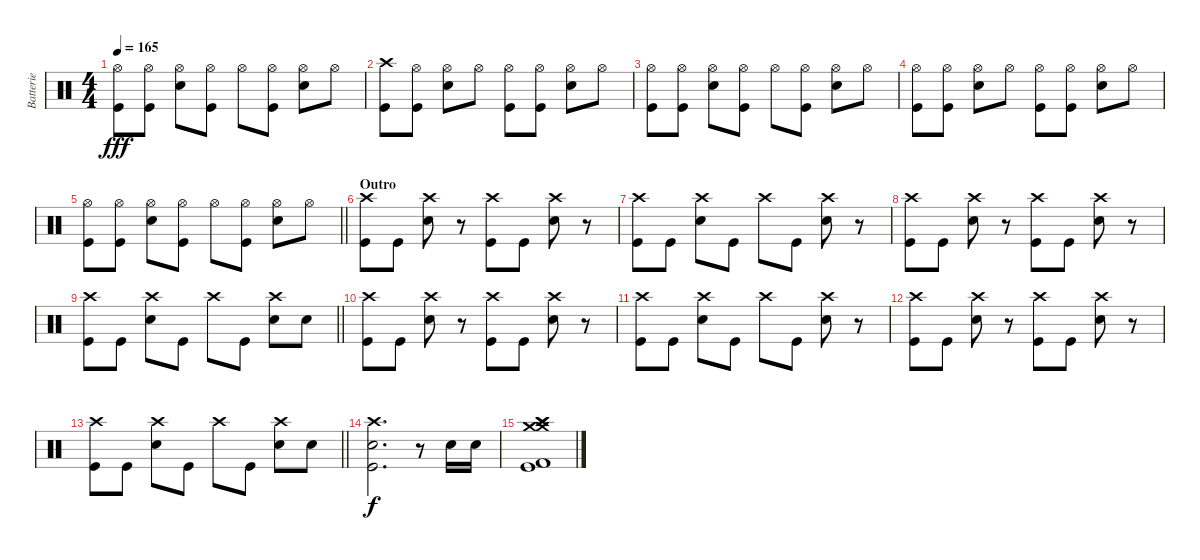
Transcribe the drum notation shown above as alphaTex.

\track ("Batterie" "Batterie") {instrument percussion}
\staff {score}
\articulation defaults
\ts (4 4)
\tempo 165
\clef neutral
\ks c
("Hi-Hat (open)" "Kick (hit)").8{dy fff} ("Hi-Hat (open)" "Kick (hit)").8 ("Hi-Hat (open)" "Electric Snare (hit)").8 ("Hi-Hat (open)" "Kick (hit)").8 "Hi-Hat (open)".8 ("Hi-Hat (open)" "Kick (hit)").8 ("Hi-Hat (open)" "Electric Snare (hit)").8 "Hi-Hat (open)".8 |
("Crash high (hit)" "Kick (hit)").8 ("Hi-Hat (open)" "Kick (hit)").8 ("Hi-Hat (open)" "Electric Snare (hit)").8 "Hi-Hat (open)".8 ("Hi-Hat (open)" "Kick (hit)").8 ("Hi-Hat (open)" "Kick (hit)").8 ("Hi-Hat (open)" "Electric Snare (hit)").8 "Hi-Hat (open)".8 |
("Hi-Hat (open)" "Kick (hit)").8 ("Hi-Hat (open)" "Kick (hit)").8 ("Hi-Hat (open)" "Electric Snare (hit)").8 ("Hi-Hat (open)" "Kick (hit)").8 "Hi-Hat (open)".8 ("Hi-Hat (open)" "Kick (hit)").8 ("Hi-Hat (open)" "Electric Snare (hit)").8 "Hi-Hat (open)".8 |
("Hi-Hat (open)" "Kick (hit)").8 ("Hi-Hat (open)" "Kick (hit)").8 ("Hi-Hat (open)" "Electric Snare (hit)").8 "Hi-Hat (open)".8 ("Hi-Hat (open)" "Kick (hit)").8 ("Hi-Hat (open)" "Kick (hit)").8 ("Hi-Hat (open)" "Electric Snare (hit)").8 "Hi-Hat (open)".8 |
\barLineRight lightlight
("Hi-Hat (open)" "Kick (hit)").8 ("Hi-Hat (open)" "Kick (hit)").8 ("Hi-Hat (open)" "Electric Snare (hit)").8 ("Hi-Hat (open)" "Kick (hit)").8 "Hi-Hat (open)".8 ("Hi-Hat (open)" "Kick (hit)").8 ("Hi-Hat (open)" "Electric Snare (hit)").8 "Hi-Hat (open)".8 |
\section ("" "Outro")
("Crash high (hit)" "Kick (hit)").8 "Kick (hit)".8 ("Crash high (hit)" "Electric Snare (hit)").8 r.8 ("Crash high (hit)" "Kick (hit)").8 "Kick (hit)".8 ("Crash high (hit)" "Electric Snare (hit)").8 r.8 |
("Crash high (hit)" "Kick (hit)").8 "Kick (hit)".8 ("Crash high (hit)" "Electric Snare (hit)").8 "Kick (hit)".8 "Crash high (hit)".8 "Kick (hit)".8 ("Crash high (hit)" "Electric Snare (hit)").8 r.8 |
("Crash high (hit)" "Kick (hit)").8 "Kick (hit)".8 ("Crash high (hit)" "Electric Snare (hit)").8 r.8 ("Crash high (hit)" "Kick (hit)").8 "Kick (hit)".8 ("Crash high (hit)" "Electric Snare (hit)").8 r.8 |
\barLineRight lightlight
("Crash high (hit)" "Kick (hit)").8 "Kick (hit)".8 ("Crash high (hit)" "Electric Snare (hit)").8 "Kick (hit)".8 "Crash high (hit)".8 "Kick (hit)".8 ("Crash high (hit)" "Electric Snare (hit)").8 "Electric Snare (hit)".8 |
("Crash high (hit)" "Kick (hit)").8 "Kick (hit)".8 ("Crash high (hit)" "Electric Snare (hit)").8 r.8 ("Crash high (hit)" "Kick (hit)").8 "Kick (hit)".8 ("Crash high (hit)" "Electric Snare (hit)").8 r.8 |
("Crash high (hit)" "Kick (hit)").8 "Kick (hit)".8 ("Crash high (hit)" "Electric Snare (hit)").8 "Kick (hit)".8 "Crash high (hit)".8 "Kick (hit)".8 ("Crash high (hit)" "Electric Snare (hit)").8 r.8 |
("Crash high (hit)" "Kick (hit)").8 "Kick (hit)".8 ("Crash high (hit)" "Electric Snare (hit)").8 r.8 ("Crash high (hit)" "Kick (hit)").8 "Kick (hit)".8 ("Crash high (hit)" "Electric Snare (hit)").8 r.8 |
\barLineRight lightlight
("Crash high (hit)" "Kick (hit)").8 "Kick (hit)".8 ("Crash high (hit)" "Electric Snare (hit)").8 "Kick (hit)".8 "Crash high (hit)".8 "Kick (hit)".8 ("Crash high (hit)" "Electric Snare (hit)").8 "Electric Snare (hit)".8 |
("Crash high (hit)" "Electric Snare (hit)" "Kick (hit)").2{d dy f} r.8 "Electric Snare (hit)".16 "Electric Snare (hit)".16 |
("Crash high (hit)" "Crash high (hit)" "Crash medium (hit)" "Crash medium (hit)" "Kick (hit) 2" "Kick (hit)").1
